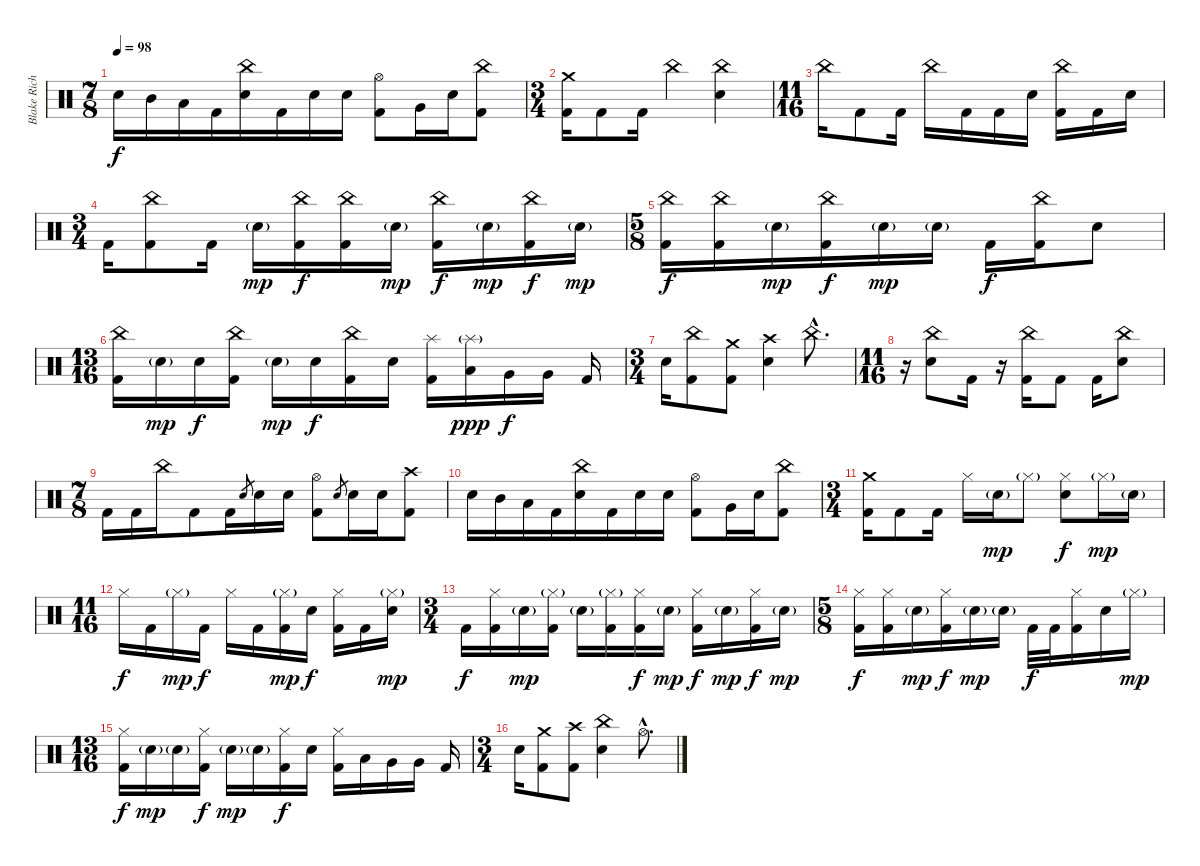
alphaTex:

\track ("Blake Richardson - Drums" "Blake Rich") {instrument percussion}
\staff {score}
\articulation defaults
\ts (7 8)
\tempo 98
\clef neutral
\ks c "Electric Snare (hit)".16{dy f} "Mid Tom (hit)".16 "Low Tom (hit)".16 "Kick (hit) 2".16
("China (hit)" "Electric Snare (hit)").16 "Kick (hit) 2".16 "Electric Snare (hit)".16 "Electric Snare (hit)".16 ("Hi-Hat (open)" "Kick (hit) 2").8 "Very Low Tom (hit)".16 "Electric Snare (hit)".16 ("China (hit)" "Kick (hit) 2").8 |
\ts (3 4)
("Crash medium (hit)" "Kick (hit) 2").16 "Kick (hit) 2".8 "Kick (hit) 2".16 "China (hit)".4 ("China (hit)" "Electric Snare (hit)").4 |
\ts (11 16)
"China (hit)".16 "Kick (hit) 2".8 "Kick (hit) 2".16 "China (hit)".16 "Kick (hit) 2".16 "Kick (hit) 2".16 "Electric Snare (hit)".16 ("China (hit)" "Kick (hit) 2").16 "Kick (hit) 2".16 "Electric Snare (hit)".16 |
\ts (3 4)
"Kick (hit) 2".16 ("China (hit)" "Kick (hit) 2").8 "Kick (hit) 2".16 "Electric Snare (hit)"{g}.16{dy mp} ("China (hit)" "Kick (hit) 2").16{dy f} ("China (hit)" "Kick (hit) 2").16 "Electric Snare (hit)"{g}.16{dy mp} ("China (hit)" "Kick (hit) 2").16{dy f} "Electric Snare (hit)"{g}.16{dy mp} ("China (hit)" "Kick (hit) 2").16{dy f} "Electric Snare (hit)"{g}.16{dy mp} |
\ts (5 8)
("China (hit)" "Kick (hit) 2").16{dy f} ("China (hit)" "Kick (hit) 2").16 "Electric Snare (hit)"{g}.16{dy mp} ("China (hit)" "Kick (hit) 2").16{dy f} "Electric Snare (hit)"{g}.16{dy mp} "Electric Snare (hit)"{g}.16 "Kick (hit) 2".16{dy f} ("China (hit)" "Kick (hit) 2").16 "Electric Snare (hit)".8 |
\ts (13 16)
("China (hit)" "Kick (hit) 2").16 "Electric Snare (hit)"{g}.16{dy mp} "Electric Snare (hit)".16{dy f} ("China (hit)" "Kick (hit) 2").16 "Electric Snare (hit)"{g}.16{dy mp} "Electric Snare (hit)".16{dy f} ("China (hit)" "Kick (hit) 2").16 "Electric Snare (hit)".16 ("Splash (hit)" "Kick (hit) 2").16 ("Splash (hit)"{g} "Low Tom (hit)").16{dy ppp} "Very Low Tom (hit)".16{dy f} "Very Low Tom (hit)".16 "Kick (hit) 2".16 |
\ts (3 4)
"Electric Snare (hit)".16 ("China (hit)" "Kick (hit) 2").8 ("Crash medium (hit)" "Kick (hit) 2").8 ("Crash high (hit)" "Electric Snare (hit)").4 "China (hit)"{hac}.8{d} |
\ts (11 16)
r.16 ("China (hit)" "Electric Snare (hit)").8 "Kick (hit) 2".16 r.16 ("China (hit)" "Kick (hit) 2").16 "Kick (hit) 2".8 "Kick (hit) 2".16 ("China (hit)" "Electric Snare (hit)").8 |
\ts (7 8)
"Kick (hit) 2".16 "Kick (hit) 2".16 "China (hit)".16 "Kick (hit) 2".8 "Kick (hit) 2".16 "Electric Snare (hit)".8{gr} "Electric Snare (hit)".16 "Electric Snare (hit)".16 ("Hi-Hat (open)" "Kick (hit) 2").8 "Electric Snare (hit)".8{gr} "Electric Snare (hit)".16 "Electric Snare (hit)".16 ("Crash high (hit)" "Kick (hit) 2").8 |
"Electric Snare (hit)".16 "Mid Tom (hit)".16 "Low Tom (hit)".16 "Kick (hit) 2".16 ("China (hit)" "Electric Snare (hit)").16 "Kick (hit) 2".16 "Electric Snare (hit)".16 "Electric Snare (hit)".16 ("Hi-Hat (open)" "Kick (hit) 2").8 "Very Low Tom (hit)".16 "Electric Snare (hit)".16 ("China (hit)" "Kick (hit) 2").8 |
\ts (3 4)
("Crash medium (hit)" "Kick (hit) 2").16 "Kick (hit) 2".8 "Kick (hit) 2".16 "Hi-Hat (closed)".16 "Electric Snare (hit)"{g}.16{dy mp} "Hi-Hat (closed)"{g}.8 ("Hi-Hat (closed)" "Electric Snare (hit)").8{dy f} "Hi-Hat (closed)"{g}.16{dy mp} "Electric Snare (hit)"{g}.16 |
\ts (11 16)
"Hi-Hat (closed)".16{dy f} "Kick (hit) 2".16 "Hi-Hat (closed)"{g}.16{dy mp} "Kick (hit) 2".16{dy f} "Hi-Hat (closed)".16 "Kick (hit) 2".16 ("Hi-Hat (closed)"{g} "Kick (hit) 2").16{dy mp} "Electric Snare (hit)".16{dy f} ("Hi-Hat (closed)" "Kick (hit) 2").16 "Kick (hit) 2".16 ("Hi-Hat (closed)"{g} "Electric Snare (hit)").16{dy mp} |
\ts (3 4)
"Kick (hit) 2".16{dy f} ("Hi-Hat (closed)" "Kick (hit) 2").16 "Electric Snare (hit)"{g}.16{dy mp} ("Hi-Hat (closed)"{g} "Kick (hit) 2").16 "Electric Snare (hit)"{g}.16 ("Hi-Hat (closed)"{g} "Kick (hit) 2").16 ("Hi-Hat (closed)" "Kick (hit) 2").16{dy f} "Electric Snare (hit)"{g}.16{dy mp} ("Hi-Hat (closed)" "Kick (hit) 2").16{dy f} "Electric Snare (hit)"{g}.16{dy mp} ("Hi-Hat (closed)" "Kick (hit) 2").16{dy f} "Electric Snare (hit)"{g}.16{dy mp} |
\ts (5 8)
("Hi-Hat (closed)" "Kick (hit) 2").16{dy f} ("Hi-Hat (closed)" "Kick (hit) 2").16 "Electric Snare (hit)"{g}.16{dy mp} ("Hi-Hat (closed)" "Kick (hit) 2").16{dy f} "Electric Snare (hit)"{g}.16{dy mp} "Electric Snare (hit)"{g}.16 "Kick (hit) 2".32{dy f} "Kick (hit) 2".32 ("Hi-Hat (closed)" "Kick (hit) 2").16 "Electric Snare (hit)".16 "Hi-Hat (closed)"{g}.16{dy mp} |
\ts (13 16)
("Hi-Hat (closed)" "Kick (hit) 2").16{dy f} "Electric Snare (hit)"{g}.16{dy mp} "Electric Snare (hit)"{g}.16 ("Hi-Hat (closed)" "Kick (hit) 2").16{dy f} "Electric Snare (hit)"{g}.16{dy mp} "Electric Snare (hit)"{g}.16 ("Hi-Hat (closed)" "Kick (hit) 2").16{dy f} "Electric Snare (hit)".16 ("Hi-Hat (closed)" "Kick (hit) 2").16 "Low Tom (hit)".16 "Very Low Tom (hit)".16 "Very Low Tom (hit)".16 "Kick (hit) 2".16 |
\ts (3 4)
"Electric Snare (hit)".16 ("Crash medium (hit)" "Kick (hit) 2").8 ("Crash high (hit)" "Kick (hit) 2").8 ("China (hit)" "Electric Snare (hit)").4 "Hi-Hat (open)"{hac}.8{d}
